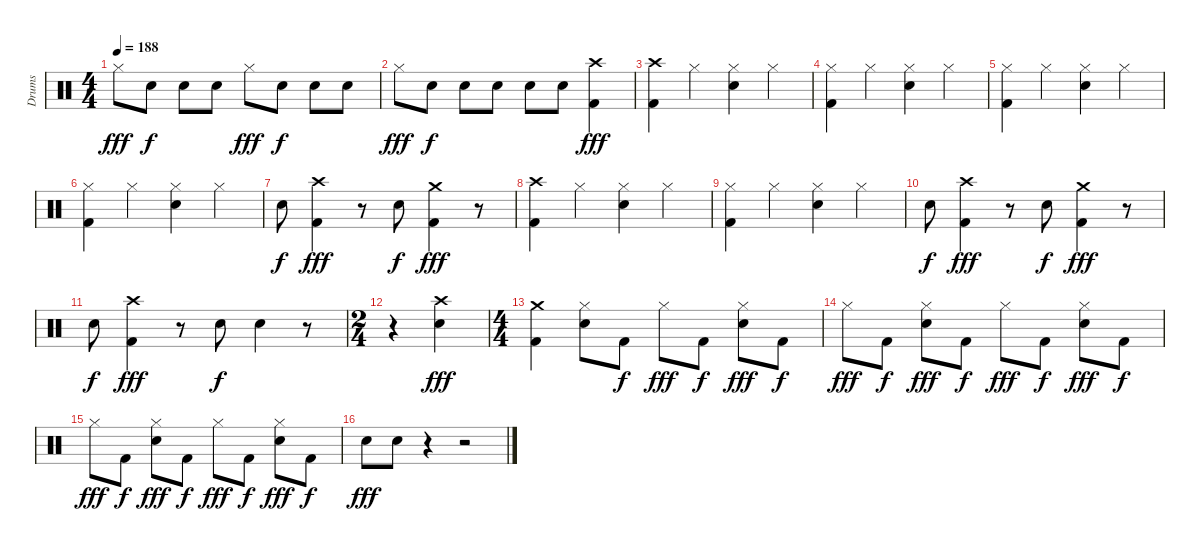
\track ("Drums" "Drums") {instrument percussion}
\staff {score}
\articulation defaults
\ts (4 4)
\tempo 188
\clef neutral
\ks c "Hi-Hat (closed)".8{dy fff} "Snare (hit) 2".8{dy f} "Snare (hit) 2".8 "Snare (hit) 2".8 "Hi-Hat (closed)".8{dy fff} "Snare (hit) 2".8{dy f} "Snare (hit) 2".8 "Snare (hit) 2".8
|
"Hi-Hat (closed)".8{dy fff} "Snare (hit) 2".8{dy f} "Snare (hit) 2".8 "Snare (hit) 2".8 "Snare (hit) 2".8 "Snare (hit) 2".8 ("Crash high (hit)" "Kick (hit) 2").4{dy fff} |
("Crash high (hit)" "Kick (hit) 2").4 "Hi-Hat (closed)".4 ("Hi-Hat (closed)" "Snare (hit) 2").4 "Hi-Hat (closed)".4 |
("Hi-Hat (closed)" "Kick (hit) 2").4 "Hi-Hat (closed)".4 ("Hi-Hat (closed)" "Snare (hit) 2").4 "Hi-Hat (closed)".4 |
("Hi-Hat (closed)" "Kick (hit) 2").4 "Hi-Hat (closed)".4 ("Hi-Hat (closed)" "Snare (hit) 2").4 "Hi-Hat (closed)".4 |
("Hi-Hat (closed)" "Kick (hit) 2").4 "Hi-Hat (closed)".4 ("Hi-Hat (closed)" "Snare (hit) 2").4 "Hi-Hat (closed)".4 |
"Snare (hit) 2".8{dy f} ("Crash high (hit)" "Kick (hit) 2").4{dy fff} r.8 "Snare (hit) 2".8{dy f} ("Crash medium (hit)" "Kick (hit) 2").4{dy fff} r.8 |
("Crash high (hit)" "Kick (hit) 2").4 "Hi-Hat (closed)".4 ("Hi-Hat (closed)" "Snare (hit) 2").4 "Hi-Hat (closed)".4 |
("Hi-Hat (closed)" "Kick (hit) 2").4 "Hi-Hat (closed)".4 ("Hi-Hat (closed)" "Snare (hit) 2").4 "Hi-Hat (closed)".4 |
"Snare (hit) 2".8{dy f} ("Crash high (hit)" "Kick (hit) 2").4{dy fff} r.8 "Snare (hit) 2".8{dy f} ("Crash medium (hit)" "Kick (hit) 2").4{dy fff} r.8 |
"Snare (hit) 2".8{dy f} ("Crash high (hit)" "Kick (hit) 2").4{dy fff} r.8 "Snare (hit) 2".8{dy f} "Snare (hit) 2".4 r.8 |
\ts (2 4)
r.4 ("Crash high (hit)" "Snare (hit) 2").4{dy fff} |
\ts (4 4)
("Crash medium (hit)" "Kick (hit) 2").4 ("Hi-Hat (closed)" "Snare (hit) 2").8 "Kick (hit) 2".8{dy f} "Hi-Hat (closed)".8{dy fff} "Kick (hit) 2".8{dy f} ("Hi-Hat (closed)" "Snare (hit) 2").8{dy fff} "Kick (hit) 2".8{dy f} |
"Hi-Hat (closed)".8{dy fff} "Kick (hit) 2".8{dy f} ("Hi-Hat (closed)" "Snare (hit) 2").8{dy fff} "Kick (hit) 2".8{dy f} "Hi-Hat (closed)".8{dy fff} "Kick (hit) 2".8{dy f} ("Hi-Hat (closed)" "Snare (hit) 2").8{dy fff} "Kick (hit) 2".8{dy f} |
"Hi-Hat (closed)".8{dy fff} "Kick (hit) 2".8{dy f} ("Hi-Hat (closed)" "Snare (hit) 2").8{dy fff} "Kick (hit) 2".8{dy f} "Hi-Hat (closed)".8{dy fff} "Kick (hit) 2".8{dy f} ("Hi-Hat (closed)" "Snare (hit) 2").8{dy fff} "Kick (hit) 2".8{dy f} |
"Snare (hit) 2".8{dy fff} "Snare (hit) 2".8 r.4 r.2
